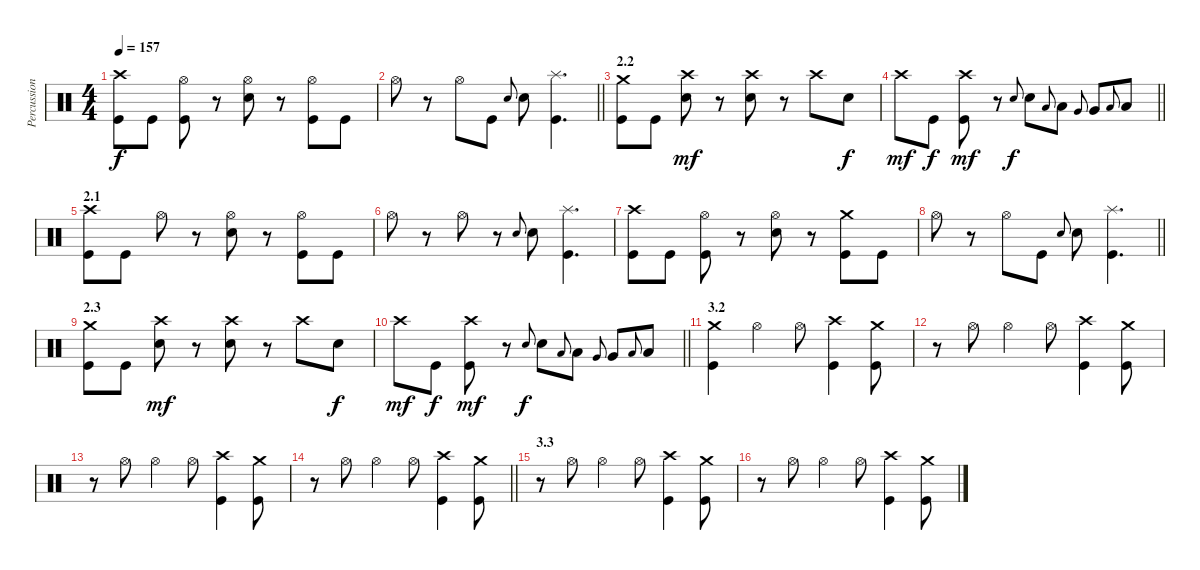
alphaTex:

\track ("Percussion" "Percussion") {instrument percussion}
\staff {score}
\articulation defaults
\ts (4 4)
\tempo 157
\clef neutral
\ks c
("Crash high (hit)" "Kick (hit)").8{dy f} "Kick (hit)".8 ("Hi-Hat (open)" "Kick (hit)").8 r.8 ("Hi-Hat (open)" "Snare (hit) 2").8 r.8 ("Hi-Hat (open)" "Kick (hit)").8 "Kick (hit)".8 |
\barLineRight lightlight "Hi-Hat (open)".8
r.8 "Hi-Hat (open)".8 "Kick (hit)".8 "Snare (hit) 2".8{gr onbeat} "Snare (hit) 2".8 ("Splash (hit)" "Kick (hit)").4{d} |
\section ("" "2.2")
("Crash medium (hit)" "Kick (hit)").8 "Kick (hit)".8 ("Crash high (hit)" "Snare (hit) 2").8{dy mf} r.8 ("Crash high (hit)" "Snare (hit) 2").8 r.8 "Crash high (hit)".8 "Snare (hit) 2".8{dy f} |
\barLineRight lightlight "Crash high (hit)".8{dy mf} "Kick (hit)".8{dy f}
("Crash high (hit)" "Kick (hit)").8{dy mf} r.8 "Snare (hit) 2".8{gr onbeat dy f} "Snare (hit) 2".8 "Low Tom (hit)".8{gr onbeat} "Low Tom (hit)".8 "Very Low Tom (hit)".8{gr onbeat} "Very Low Tom (hit)".8 "Low Floor Tom (hit)".8{gr onbeat} "Low Floor Tom (hit)".8 |
\section ("" "2.1")
("Crash high (hit)" "Kick (hit)").8 "Kick (hit)".8 "Hi-Hat (open)".8 r.8 ("Hi-Hat (open)" "Snare (hit) 2").8 r.8 ("Hi-Hat (open)" "Kick (hit)").8 "Kick (hit)".8 |
"Hi-Hat (open)".8 r.8 "Hi-Hat (open)".8 r.8 "Snare (hit) 2".8{gr onbeat} "Snare (hit) 2".8 ("Splash (hit)" "Kick (hit)").4{d} |
("Crash high (hit)" "Kick (hit)").8 "Kick (hit)".8 ("Hi-Hat (open)" "Kick (hit)").8 r.8 ("Hi-Hat (open)" "Snare (hit) 2").8 r.8 ("Crash medium (hit)" "Kick (hit)").8 "Kick (hit)".8 |
\barLineRight lightlight "Hi-Hat (open)".8
r.8 "Hi-Hat (open)".8 "Kick (hit)".8 "Snare (hit) 2".8{gr onbeat} "Snare (hit) 2".8 ("Splash (hit)" "Kick (hit)").4{d} |
\section ("" "2.3")
("Crash medium (hit)" "Kick (hit)").8 "Kick (hit)".8 ("Crash high (hit)" "Snare (hit) 2").8{dy mf} r.8 ("Crash high (hit)" "Snare (hit) 2").8 r.8 "Crash high (hit)".8 "Snare (hit) 2".8{dy f} |
\barLineRight lightlight "Crash high (hit)".8{dy mf} "Kick (hit)".8{dy f}
("Crash high (hit)" "Kick (hit)").8{dy mf} r.8 "Snare (hit) 2".8{gr onbeat dy f} "Snare (hit) 2".8 "Low Tom (hit)".8{gr onbeat} "Low Tom (hit)".8 "Very Low Tom (hit)".8{gr onbeat} "Very Low Tom (hit)".8 "Low Floor Tom (hit)".8{gr onbeat} "Low Floor Tom (hit)".8 |
\section ("" "3.2")
("Crash medium (hit)" "Kick (hit)").4 "Hi-Hat (open)".4 "Hi-Hat (open)".8 ("Crash high (hit)" "Kick (hit)").4 ("Crash medium (hit)" "Kick (hit)").8 |
r.8 "Hi-Hat (open)".8 "Hi-Hat (open)".4 "Hi-Hat (open)".8 ("Crash high (hit)" "Kick (hit)").4 ("Crash medium (hit)" "Kick (hit)").8 |
r.8 "Hi-Hat (open)".8 "Hi-Hat (open)".4 "Hi-Hat (open)".8 ("Crash high (hit)" "Kick (hit)").4 ("Crash medium (hit)" "Kick (hit)").8 |
\barLineRight lightlight
r.8 "Hi-Hat (open)".8 "Hi-Hat (open)".4 "Hi-Hat (open)".8 ("Crash high (hit)" "Kick (hit)").4 ("Crash medium (hit)" "Kick (hit)").8 |
\section ("" "3.3")
r.8 "Hi-Hat (open)".8 "Hi-Hat (open)".4 "Hi-Hat (open)".8 ("Crash high (hit)" "Kick (hit)").4 ("Crash medium (hit)" "Kick (hit)").8 |
r.8 "Hi-Hat (open)".8 "Hi-Hat (open)".4 "Hi-Hat (open)".8 ("Crash high (hit)" "Kick (hit)").4 ("Crash medium (hit)" "Kick (hit)").8
